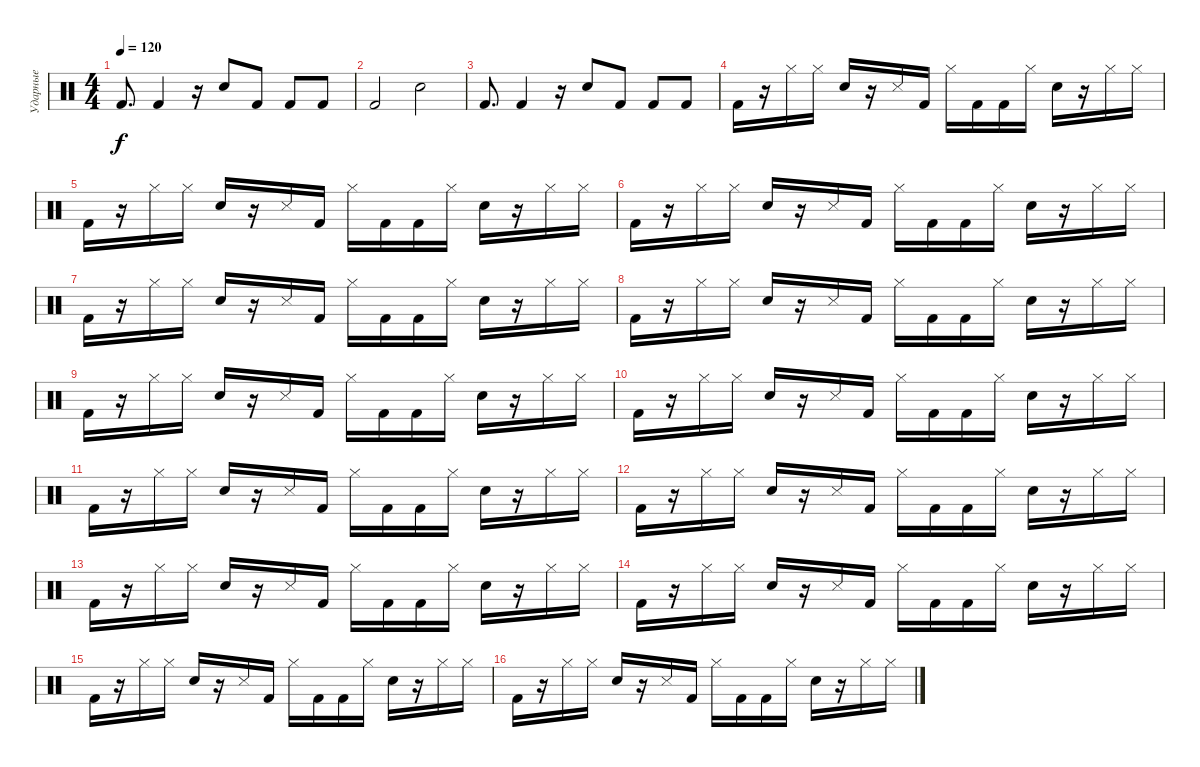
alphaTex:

\track ("Ударные" "Ударные") {instrument percussion}
\staff {score}
\articulation defaults
\ts (4 4)
\tempo 120
\clef neutral
\ks c "Kick (hit) 2".8{d dy f} "Kick (hit) 2".4
r.16 "Electric Snare (hit)".8 "Kick (hit) 2".8 "Kick (hit) 2".8 "Kick (hit) 2".8 |
"Kick (hit) 2".2 "Electric Snare (hit)".2 |
"Kick (hit) 2".8{d} "Kick (hit) 2".4 r.16 "Electric Snare (hit)".8 "Kick (hit) 2".8 "Kick (hit) 2".8 "Kick (hit) 2".8 |
"Kick (hit) 2".16 r.16 "Hi-Hat (closed)".16 "Hi-Hat (closed)".16 "Electric Snare (hit)".16 r.16 "Snare (side stick) 3".16 "Kick (hit) 2".16 "Hi-Hat (closed)".16 "Kick (hit) 2".16 "Kick (hit) 2".16 "Hi-Hat (closed)".16 "Electric Snare (hit)".16 r.16 "Hi-Hat (closed)".16 "Hi-Hat (closed)".16 |
"Kick (hit) 2".16 r.16 "Hi-Hat (closed)".16 "Hi-Hat (closed)".16 "Electric Snare (hit)".16 r.16 "Snare (side stick) 3".16 "Kick (hit) 2".16 "Hi-Hat (closed)".16 "Kick (hit) 2".16 "Kick (hit) 2".16 "Hi-Hat (closed)".16 "Electric Snare (hit)".16 r.16 "Hi-Hat (closed)".16 "Hi-Hat (closed)".16 |
"Kick (hit) 2".16 r.16 "Hi-Hat (closed)".16 "Hi-Hat (closed)".16 "Electric Snare (hit)".16 r.16 "Snare (side stick) 3".16 "Kick (hit) 2".16 "Hi-Hat (closed)".16 "Kick (hit) 2".16 "Kick (hit) 2".16 "Hi-Hat (closed)".16 "Electric Snare (hit)".16 r.16 "Hi-Hat (closed)".16 "Hi-Hat (closed)".16 |
"Kick (hit) 2".16 r.16 "Hi-Hat (closed)".16 "Hi-Hat (closed)".16 "Electric Snare (hit)".16 r.16 "Snare (side stick) 3".16 "Kick (hit) 2".16 "Hi-Hat (closed)".16 "Kick (hit) 2".16 "Kick (hit) 2".16 "Hi-Hat (closed)".16 "Electric Snare (hit)".16 r.16 "Hi-Hat (closed)".16 "Hi-Hat (closed)".16 |
"Kick (hit) 2".16 r.16 "Hi-Hat (closed)".16 "Hi-Hat (closed)".16 "Electric Snare (hit)".16 r.16 "Snare (side stick) 3".16 "Kick (hit) 2".16 "Hi-Hat (closed)".16 "Kick (hit) 2".16 "Kick (hit) 2".16 "Hi-Hat (closed)".16 "Electric Snare (hit)".16 r.16 "Hi-Hat (closed)".16 "Hi-Hat (closed)".16 |
"Kick (hit) 2".16 r.16 "Hi-Hat (closed)".16 "Hi-Hat (closed)".16 "Electric Snare (hit)".16 r.16 "Snare (side stick) 3".16 "Kick (hit) 2".16 "Hi-Hat (closed)".16 "Kick (hit) 2".16 "Kick (hit) 2".16 "Hi-Hat (closed)".16 "Electric Snare (hit)".16 r.16 "Hi-Hat (closed)".16 "Hi-Hat (closed)".16 |
"Kick (hit) 2".16 r.16 "Hi-Hat (closed)".16 "Hi-Hat (closed)".16 "Electric Snare (hit)".16 r.16 "Snare (side stick) 3".16 "Kick (hit) 2".16 "Hi-Hat (closed)".16 "Kick (hit) 2".16 "Kick (hit) 2".16 "Hi-Hat (closed)".16 "Electric Snare (hit)".16 r.16 "Hi-Hat (closed)".16 "Hi-Hat (closed)".16 |
"Kick (hit) 2".16 r.16 "Hi-Hat (closed)".16 "Hi-Hat (closed)".16 "Electric Snare (hit)".16 r.16 "Snare (side stick) 3".16 "Kick (hit) 2".16 "Hi-Hat (closed)".16 "Kick (hit) 2".16 "Kick (hit) 2".16 "Hi-Hat (closed)".16 "Electric Snare (hit)".16 r.16 "Hi-Hat (closed)".16 "Hi-Hat (closed)".16 |
"Kick (hit) 2".16 r.16 "Hi-Hat (closed)".16 "Hi-Hat (closed)".16 "Electric Snare (hit)".16 r.16 "Snare (side stick) 3".16 "Kick (hit) 2".16 "Hi-Hat (closed)".16 "Kick (hit) 2".16 "Kick (hit) 2".16 "Hi-Hat (closed)".16 "Electric Snare (hit)".16 r.16 "Hi-Hat (closed)".16 "Hi-Hat (closed)".16 |
"Kick (hit) 2".16 r.16 "Hi-Hat (closed)".16 "Hi-Hat (closed)".16 "Electric Snare (hit)".16 r.16 "Snare (side stick) 3".16 "Kick (hit) 2".16 "Hi-Hat (closed)".16 "Kick (hit) 2".16 "Kick (hit) 2".16 "Hi-Hat (closed)".16 "Electric Snare (hit)".16 r.16 "Hi-Hat (closed)".16 "Hi-Hat (closed)".16 |
"Kick (hit) 2".16 r.16 "Hi-Hat (closed)".16 "Hi-Hat (closed)".16 "Electric Snare (hit)".16 r.16 "Snare (side stick) 3".16 "Kick (hit) 2".16 "Hi-Hat (closed)".16 "Kick (hit) 2".16 "Kick (hit) 2".16 "Hi-Hat (closed)".16 "Electric Snare (hit)".16 r.16 "Hi-Hat (closed)".16 "Hi-Hat (closed)".16 |
"Kick (hit) 2".16 r.16 "Hi-Hat (closed)".16 "Hi-Hat (closed)".16 "Electric Snare (hit)".16 r.16 "Snare (side stick) 3".16 "Kick (hit) 2".16 "Hi-Hat (closed)".16 "Kick (hit) 2".16 "Kick (hit) 2".16 "Hi-Hat (closed)".16 "Electric Snare (hit)".16 r.16 "Hi-Hat (closed)".16 "Hi-Hat (closed)".16 |
"Kick (hit) 2".16 r.16 "Hi-Hat (closed)".16 "Hi-Hat (closed)".16 "Electric Snare (hit)".16 r.16 "Snare (side stick) 3".16 "Kick (hit) 2".16 "Hi-Hat (closed)".16 "Kick (hit) 2".16 "Kick (hit) 2".16 "Hi-Hat (closed)".16 "Electric Snare (hit)".16 r.16 "Hi-Hat (closed)".16 "Hi-Hat (closed)".16
